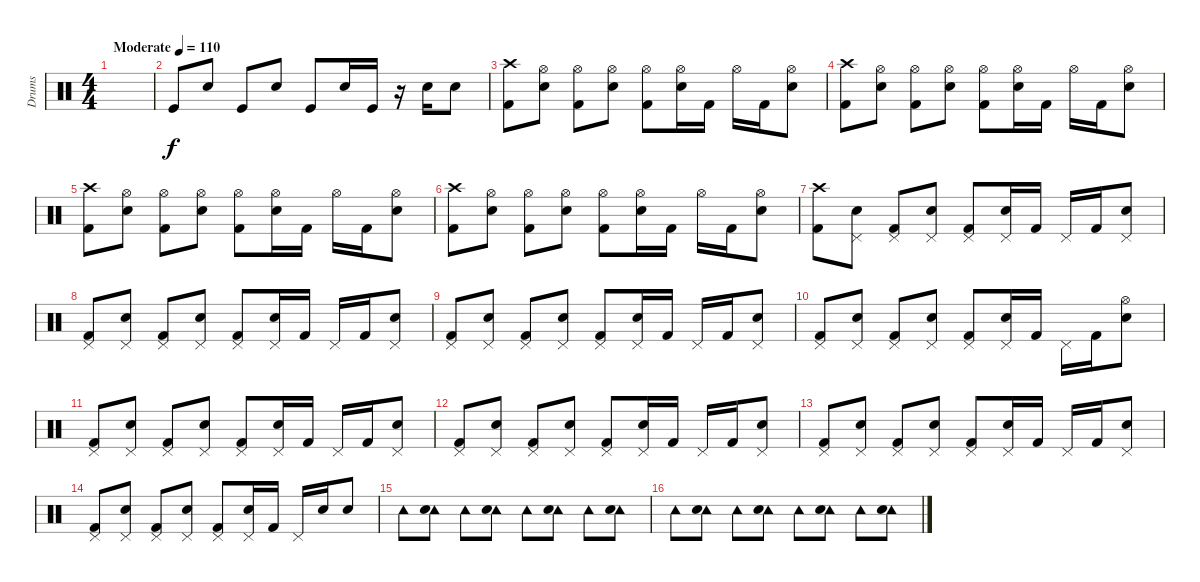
\track ("Drums" "Drums") {instrument percussion}
\staff {score}
\articulation defaults
\ts (4 4)
\tempo (110 "Moderate")
\clef neutral
\ks c
|
"Kick (hit)".8 "Snare (hit) 2".8 "Kick (hit)".8 "Snare (hit) 2".8 "Kick (hit)".8 "Snare (hit) 2".16 "Kick (hit)".16 r.16 "Electric Snare (hit)".16 "Electric Snare (hit)".8 |
("Crash high (hit)" "Kick (hit) 2").8 ("Hi-Hat (open)" "Electric Snare (hit)").8 ("Hi-Hat (open)" "Kick (hit) 2").8 ("Hi-Hat (open)" "Electric Snare (hit)").8 ("Hi-Hat (open)" "Kick (hit) 2").8 ("Hi-Hat (open)" "Electric Snare (hit)").16 "Kick (hit) 2".16 "Hi-Hat (open)".16 "Kick (hit) 2".16 ("Hi-Hat (open)" "Electric Snare (hit)").8 |
("Crash high (hit)" "Kick (hit) 2").8 ("Hi-Hat (open)" "Electric Snare (hit)").8 ("Hi-Hat (open)" "Kick (hit) 2").8 ("Hi-Hat (open)" "Electric Snare (hit)").8 ("Hi-Hat (open)" "Kick (hit) 2").8 ("Hi-Hat (open)" "Electric Snare (hit)").16 "Kick (hit) 2".16 "Hi-Hat (open)".16 "Kick (hit) 2".16 ("Hi-Hat (open)" "Electric Snare (hit)").8 |
("Crash high (hit)" "Kick (hit) 2").8 ("Hi-Hat (open)" "Electric Snare (hit)").8 ("Hi-Hat (open)" "Kick (hit) 2").8 ("Hi-Hat (open)" "Electric Snare (hit)").8 ("Hi-Hat (open)" "Kick (hit) 2").8 ("Hi-Hat (open)" "Electric Snare (hit)").16 "Kick (hit) 2".16 "Hi-Hat (open)".16 "Kick (hit) 2".16 ("Hi-Hat (open)" "Electric Snare (hit)").8 |
("Crash high (hit)" "Kick (hit) 2").8 ("Hi-Hat (open)" "Electric Snare (hit)").8 ("Hi-Hat (open)" "Kick (hit) 2").8 ("Hi-Hat (open)" "Electric Snare (hit)").8 ("Hi-Hat (open)" "Kick (hit) 2").8 ("Hi-Hat (open)" "Electric Snare (hit)").16 "Kick (hit) 2".16 "Hi-Hat (open)".16 "Kick (hit) 2".16 ("Hi-Hat (open)" "Electric Snare (hit)").8 |
("Crash high (hit)" "Kick (hit) 2").8 ("Pedal Hi-Hat (hit)" "Electric Snare (hit)").8 ("Pedal Hi-Hat (hit)" "Kick (hit) 2").8 ("Pedal Hi-Hat (hit)" "Electric Snare (hit)").8 ("Pedal Hi-Hat (hit)" "Kick (hit) 2").8 ("Pedal Hi-Hat (hit)" "Electric Snare (hit)").16 "Kick (hit) 2".16 "Pedal Hi-Hat (hit)".16 "Kick (hit) 2".16 ("Pedal Hi-Hat (hit)" "Electric Snare (hit)").8 |
("Pedal Hi-Hat (hit)" "Kick (hit) 2").8 ("Pedal Hi-Hat (hit)" "Electric Snare (hit)").8 ("Pedal Hi-Hat (hit)" "Kick (hit) 2").8 ("Pedal Hi-Hat (hit)" "Electric Snare (hit)").8 ("Pedal Hi-Hat (hit)" "Kick (hit) 2").8 ("Pedal Hi-Hat (hit)" "Electric Snare (hit)").16 "Kick (hit) 2".16 "Pedal Hi-Hat (hit)".16 "Kick (hit) 2".16 ("Pedal Hi-Hat (hit)" "Electric Snare (hit)").8 |
("Pedal Hi-Hat (hit)" "Kick (hit) 2").8 ("Pedal Hi-Hat (hit)" "Electric Snare (hit)").8 ("Pedal Hi-Hat (hit)" "Kick (hit) 2").8 ("Pedal Hi-Hat (hit)" "Electric Snare (hit)").8 ("Pedal Hi-Hat (hit)" "Kick (hit) 2").8 ("Pedal Hi-Hat (hit)" "Electric Snare (hit)").16 "Kick (hit) 2".16 "Pedal Hi-Hat (hit)".16 "Kick (hit) 2".16 ("Pedal Hi-Hat (hit)" "Electric Snare (hit)").8 |
("Pedal Hi-Hat (hit)" "Kick (hit) 2").8 ("Pedal Hi-Hat (hit)" "Electric Snare (hit)").8 ("Pedal Hi-Hat (hit)" "Kick (hit) 2").8 ("Pedal Hi-Hat (hit)" "Electric Snare (hit)").8 ("Pedal Hi-Hat (hit)" "Kick (hit) 2").8 ("Pedal Hi-Hat (hit)" "Electric Snare (hit)").16 "Kick (hit) 2".16 "Pedal Hi-Hat (hit)".16 "Kick (hit) 2".16 ("Hi-Hat (open)" "Electric Snare (hit)").8 |
("Pedal Hi-Hat (hit)" "Kick (hit) 2").8 ("Pedal Hi-Hat (hit)" "Electric Snare (hit)").8 ("Pedal Hi-Hat (hit)" "Kick (hit) 2").8 ("Pedal Hi-Hat (hit)" "Electric Snare (hit)").8 ("Pedal Hi-Hat (hit)" "Kick (hit) 2").8 ("Pedal Hi-Hat (hit)" "Electric Snare (hit)").16 "Kick (hit) 2".16 "Pedal Hi-Hat (hit)".16 "Kick (hit) 2".16 ("Pedal Hi-Hat (hit)" "Electric Snare (hit)").8 |
("Pedal Hi-Hat (hit)" "Kick (hit) 2").8 ("Pedal Hi-Hat (hit)" "Electric Snare (hit)").8 ("Pedal Hi-Hat (hit)" "Kick (hit) 2").8 ("Pedal Hi-Hat (hit)" "Electric Snare (hit)").8 ("Pedal Hi-Hat (hit)" "Kick (hit) 2").8 ("Pedal Hi-Hat (hit)" "Electric Snare (hit)").16 "Kick (hit) 2".16 "Pedal Hi-Hat (hit)".16 "Kick (hit) 2".16 ("Pedal Hi-Hat (hit)" "Electric Snare (hit)").8 |
("Pedal Hi-Hat (hit)" "Kick (hit) 2").8 ("Pedal Hi-Hat (hit)" "Electric Snare (hit)").8 ("Pedal Hi-Hat (hit)" "Kick (hit) 2").8 ("Pedal Hi-Hat (hit)" "Electric Snare (hit)").8 ("Pedal Hi-Hat (hit)" "Kick (hit) 2").8 ("Pedal Hi-Hat (hit)" "Electric Snare (hit)").16 "Kick (hit) 2".16 "Pedal Hi-Hat (hit)".16 "Kick (hit) 2".16 ("Pedal Hi-Hat (hit)" "Electric Snare (hit)").8 |
("Pedal Hi-Hat (hit)" "Kick (hit) 2").8 ("Pedal Hi-Hat (hit)" "Electric Snare (hit)").8 ("Pedal Hi-Hat (hit)" "Kick (hit) 2").8 ("Pedal Hi-Hat (hit)" "Electric Snare (hit)").8 ("Pedal Hi-Hat (hit)" "Kick (hit) 2").8 ("Pedal Hi-Hat (hit)" "Electric Snare (hit)").16 "Kick (hit) 2".16 "Pedal Hi-Hat (hit)".16 "Electric Snare (hit)".16 "Electric Snare (hit)".8 |
"Tambourine (hit)".8 ("Tambourine (hit)" "Hand Clap (hit)").8 "Tambourine (hit)".8 ("Tambourine (hit)" "Hand Clap (hit)").8 "Tambourine (hit)".8 ("Tambourine (hit)" "Hand Clap (hit)").8 "Tambourine (hit)".8 ("Tambourine (hit)" "Hand Clap (hit)").8 |
"Tambourine (hit)".8 ("Tambourine (hit)" "Hand Clap (hit)").8 "Tambourine (hit)".8 ("Tambourine (hit)" "Hand Clap (hit)").8 "Tambourine (hit)".8 ("Tambourine (hit)" "Hand Clap (hit)").8 "Tambourine (hit)".8 ("Tambourine (hit)" "Hand Clap (hit)").8
